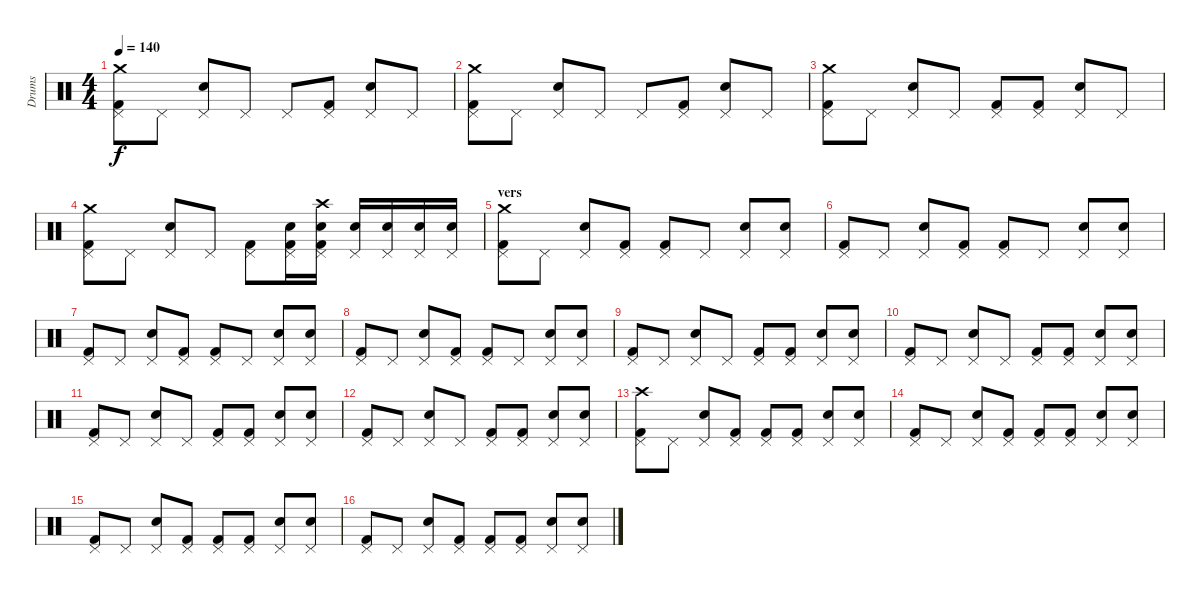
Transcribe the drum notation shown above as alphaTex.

\track ("Drums" "Drums") {instrument percussion}
\staff {score}
\articulation defaults
\ts (4 4)
\tempo 140
\clef neutral
\ks c
("Crash medium (hit)" "Pedal Hi-Hat (hit)" "Kick (hit) 2").8{dy f} "Pedal Hi-Hat (hit)".8 ("Pedal Hi-Hat (hit)" "Snare (hit) 2").8 "Pedal Hi-Hat (hit)".8 "Pedal Hi-Hat (hit)".8 ("Pedal Hi-Hat (hit)" "Kick (hit) 2").8 ("Pedal Hi-Hat (hit)" "Snare (hit) 2").8 "Pedal Hi-Hat (hit)".8 |
("Crash medium (hit)" "Pedal Hi-Hat (hit)" "Kick (hit) 2").8 "Pedal Hi-Hat (hit)".8 ("Pedal Hi-Hat (hit)" "Snare (hit) 2").8 "Pedal Hi-Hat (hit)".8 "Pedal Hi-Hat (hit)".8 ("Pedal Hi-Hat (hit)" "Kick (hit) 2").8 ("Pedal Hi-Hat (hit)" "Snare (hit) 2").8 "Pedal Hi-Hat (hit)".8 |
("Crash medium (hit)" "Pedal Hi-Hat (hit)" "Kick (hit) 2").8 "Pedal Hi-Hat (hit)".8 ("Pedal Hi-Hat (hit)" "Snare (hit) 2").8 "Pedal Hi-Hat (hit)".8 ("Pedal Hi-Hat (hit)" "Kick (hit) 2").8 ("Pedal Hi-Hat (hit)" "Kick (hit) 2").8 ("Pedal Hi-Hat (hit)" "Snare (hit) 2").8 "Pedal Hi-Hat (hit)".8 |
("Crash medium (hit)" "Pedal Hi-Hat (hit)" "Kick (hit) 2").8 "Pedal Hi-Hat (hit)".8 ("Pedal Hi-Hat (hit)" "Snare (hit) 2").8 "Pedal Hi-Hat (hit)".8 ("Pedal Hi-Hat (hit)" "Kick (hit) 2").8 ("Snare (hit) 2" "Pedal Hi-Hat (hit)" "Kick (hit) 2").16 ("Crash high (hit)" "Pedal Hi-Hat (hit)" "Snare (hit) 2" "Kick (hit) 2").16 ("Pedal Hi-Hat (hit)" "Snare (hit) 2").16 ("Pedal Hi-Hat (hit)" "Snare (hit) 2").16 ("Pedal Hi-Hat (hit)" "Snare (hit) 2").16 ("Pedal Hi-Hat (hit)" "Snare (hit) 2").16 |
\section ("" "vers")
("Crash medium (hit)" "Pedal Hi-Hat (hit)" "Kick (hit) 2").8 "Pedal Hi-Hat (hit)".8 ("Pedal Hi-Hat (hit)" "Snare (hit) 2").8 ("Pedal Hi-Hat (hit)" "Kick (hit) 2").8 ("Pedal Hi-Hat (hit)" "Kick (hit) 2").8 "Pedal Hi-Hat (hit)".8 ("Pedal Hi-Hat (hit)" "Snare (hit) 2").8 ("Pedal Hi-Hat (hit)" "Snare (hit) 2").8 |
("Pedal Hi-Hat (hit)" "Kick (hit) 2").8 "Pedal Hi-Hat (hit)".8 ("Pedal Hi-Hat (hit)" "Snare (hit) 2").8 ("Pedal Hi-Hat (hit)" "Kick (hit) 2").8 ("Pedal Hi-Hat (hit)" "Kick (hit) 2").8 "Pedal Hi-Hat (hit)".8 ("Pedal Hi-Hat (hit)" "Snare (hit) 2").8 ("Pedal Hi-Hat (hit)" "Snare (hit) 2").8 |
("Pedal Hi-Hat (hit)" "Kick (hit) 2").8 "Pedal Hi-Hat (hit)".8 ("Pedal Hi-Hat (hit)" "Snare (hit) 2").8 ("Pedal Hi-Hat (hit)" "Kick (hit) 2").8 ("Pedal Hi-Hat (hit)" "Kick (hit) 2").8 "Pedal Hi-Hat (hit)".8 ("Pedal Hi-Hat (hit)" "Snare (hit) 2").8 ("Pedal Hi-Hat (hit)" "Snare (hit) 2").8 |
("Pedal Hi-Hat (hit)" "Kick (hit) 2").8 "Pedal Hi-Hat (hit)".8 ("Pedal Hi-Hat (hit)" "Snare (hit) 2").8 ("Pedal Hi-Hat (hit)" "Kick (hit) 2").8 ("Pedal Hi-Hat (hit)" "Kick (hit) 2").8 "Pedal Hi-Hat (hit)".8 ("Pedal Hi-Hat (hit)" "Snare (hit) 2").8 ("Pedal Hi-Hat (hit)" "Snare (hit) 2").8 |
("Pedal Hi-Hat (hit)" "Kick (hit) 2").8 "Pedal Hi-Hat (hit)".8 ("Pedal Hi-Hat (hit)" "Snare (hit) 2").8 "Pedal Hi-Hat (hit)".8 ("Pedal Hi-Hat (hit)" "Kick (hit) 2").8 ("Pedal Hi-Hat (hit)" "Kick (hit) 2").8 ("Pedal Hi-Hat (hit)" "Snare (hit) 2").8 ("Pedal Hi-Hat (hit)" "Snare (hit) 2").8 |
("Pedal Hi-Hat (hit)" "Kick (hit) 2").8 "Pedal Hi-Hat (hit)".8 ("Pedal Hi-Hat (hit)" "Snare (hit) 2").8 "Pedal Hi-Hat (hit)".8 ("Pedal Hi-Hat (hit)" "Kick (hit) 2").8 ("Pedal Hi-Hat (hit)" "Kick (hit) 2").8 ("Pedal Hi-Hat (hit)" "Snare (hit) 2").8 ("Pedal Hi-Hat (hit)" "Snare (hit) 2").8 |
("Pedal Hi-Hat (hit)" "Kick (hit) 2").8 "Pedal Hi-Hat (hit)".8 ("Pedal Hi-Hat (hit)" "Snare (hit) 2").8 "Pedal Hi-Hat (hit)".8 ("Pedal Hi-Hat (hit)" "Kick (hit) 2").8 ("Pedal Hi-Hat (hit)" "Kick (hit) 2").8 ("Pedal Hi-Hat (hit)" "Snare (hit) 2").8 ("Pedal Hi-Hat (hit)" "Snare (hit) 2").8 |
("Pedal Hi-Hat (hit)" "Kick (hit) 2").8 "Pedal Hi-Hat (hit)".8 ("Pedal Hi-Hat (hit)" "Snare (hit) 2").8 "Pedal Hi-Hat (hit)".8 ("Pedal Hi-Hat (hit)" "Kick (hit) 2").8 ("Pedal Hi-Hat (hit)" "Kick (hit) 2").8 ("Pedal Hi-Hat (hit)" "Snare (hit) 2").8 ("Pedal Hi-Hat (hit)" "Snare (hit) 2").8 |
("Crash high (hit)" "Pedal Hi-Hat (hit)" "Kick (hit) 2").8 "Pedal Hi-Hat (hit)".8 ("Pedal Hi-Hat (hit)" "Snare (hit) 2").8 ("Pedal Hi-Hat (hit)" "Kick (hit) 2").8 ("Pedal Hi-Hat (hit)" "Kick (hit) 2").8 ("Pedal Hi-Hat (hit)" "Kick (hit) 2").8 ("Pedal Hi-Hat (hit)" "Snare (hit) 2").8 ("Pedal Hi-Hat (hit)" "Snare (hit) 2").8 |
("Pedal Hi-Hat (hit)" "Kick (hit) 2").8 "Pedal Hi-Hat (hit)".8 ("Pedal Hi-Hat (hit)" "Snare (hit) 2").8 ("Pedal Hi-Hat (hit)" "Kick (hit) 2").8 ("Pedal Hi-Hat (hit)" "Kick (hit) 2").8 ("Pedal Hi-Hat (hit)" "Kick (hit) 2").8 ("Pedal Hi-Hat (hit)" "Snare (hit) 2").8 ("Pedal Hi-Hat (hit)" "Snare (hit) 2").8 |
("Pedal Hi-Hat (hit)" "Kick (hit) 2").8 "Pedal Hi-Hat (hit)".8 ("Pedal Hi-Hat (hit)" "Snare (hit) 2").8 ("Pedal Hi-Hat (hit)" "Kick (hit) 2").8 ("Pedal Hi-Hat (hit)" "Kick (hit) 2").8 ("Pedal Hi-Hat (hit)" "Kick (hit) 2").8 ("Pedal Hi-Hat (hit)" "Snare (hit) 2").8 ("Pedal Hi-Hat (hit)" "Snare (hit) 2").8 |
("Pedal Hi-Hat (hit)" "Kick (hit) 2").8 "Pedal Hi-Hat (hit)".8 ("Pedal Hi-Hat (hit)" "Snare (hit) 2").8 ("Pedal Hi-Hat (hit)" "Kick (hit) 2").8 ("Pedal Hi-Hat (hit)" "Kick (hit) 2").8 ("Pedal Hi-Hat (hit)" "Kick (hit) 2").8 ("Pedal Hi-Hat (hit)" "Snare (hit) 2").8 ("Pedal Hi-Hat (hit)" "Snare (hit) 2").8
